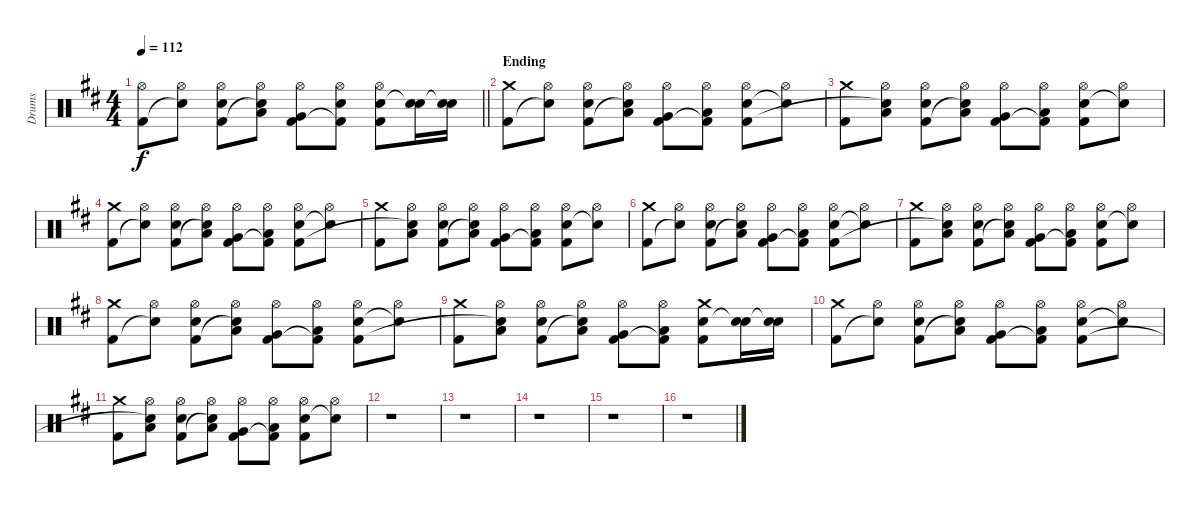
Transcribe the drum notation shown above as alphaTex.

\track ("Drums" "Drums") {instrument percussion}
\staff {score}
\articulation defaults
\ts (4 4)
\tempo 112
\clef neutral
\barLineRight lightlight
\ks bminor
("Hi-Hat (open)" "Kick (hit) 2").8{dy f} ("Hi-Hat (open)" "Snare (hit)"{t}).8 ("Hi-Hat (open)" "Electric Snare (hit)" "Kick (hit) 2").8 ("Hi-Hat (open)" "Low Tom (hit)" "Snare (hit)"{t}).8 ("Hi-Hat (open)" "Very Low Tom (hit)" "Kick (hit) 2").8 ("Hi-Hat (open)" "Electric Snare (hit)" "Kick (hit) 2"{t}).8 ("Hi-Hat (open)" "Electric Snare (hit)" "Kick (hit) 2").8 ("Electric Snare (hit)" "Snare (hit)"{t}).16 ("Electric Snare (hit)" "Snare (hit)"{t}).16 |
\section ("" "Ending")
("Crash medium (hit)" "Kick (hit) 2").8 ("Hi-Hat (open)" "Snare (hit)"{t}).8 ("Hi-Hat (open)" "Electric Snare (hit)" "Kick (hit) 2").8 ("Hi-Hat (open)" "Low Tom (hit)" "Snare (hit)"{t}).8 ("Hi-Hat (open)" "Very Low Tom (hit)" "Kick (hit) 2").8 ("Hi-Hat (open)" "Low Floor Tom (hit)" "Kick (hit) 2"{t}).8 ("Hi-Hat (open)" "Electric Snare (hit)" "Kick (hit) 2").8 ("Hi-Hat (open)" "Snare (hit)"{t}).8 |
("Crash medium (hit)" "Kick (hit) 2").8 ("Hi-Hat (open)" "Low Tom (hit)" "Snare (hit)"{t}).8 ("Hi-Hat (open)" "Electric Snare (hit)" "Kick (hit) 2").8 ("Hi-Hat (open)" "Low Tom (hit)" "Snare (hit)"{t}).8 ("Hi-Hat (open)" "Very Low Tom (hit)" "Kick (hit) 2").8 ("Hi-Hat (open)" "Low Floor Tom (hit)" "Kick (hit) 2"{t}).8 ("Hi-Hat (open)" "Electric Snare (hit)" "Kick (hit) 2").8 ("Hi-Hat (open)" "Snare (hit)"{t}).8 |
("Crash medium (hit)" "Kick (hit) 2").8 ("Hi-Hat (open)" "Snare (hit)"{t}).8 ("Hi-Hat (open)" "Electric Snare (hit)" "Kick (hit) 2").8 ("Hi-Hat (open)" "Low Tom (hit)" "Snare (hit)"{t}).8 ("Hi-Hat (open)" "Very Low Tom (hit)" "Kick (hit) 2").8 ("Hi-Hat (open)" "Low Floor Tom (hit)" "Kick (hit) 2"{t}).8 ("Hi-Hat (open)" "Electric Snare (hit)" "Kick (hit) 2").8 ("Hi-Hat (open)" "Snare (hit)"{t}).8 |
("Crash medium (hit)" "Kick (hit) 2").8 ("Hi-Hat (open)" "Low Tom (hit)" "Snare (hit)"{t}).8 ("Hi-Hat (open)" "Electric Snare (hit)" "Kick (hit) 2").8 ("Hi-Hat (open)" "Low Tom (hit)" "Snare (hit)"{t}).8 ("Hi-Hat (open)" "Very Low Tom (hit)" "Kick (hit) 2").8 ("Hi-Hat (open)" "Low Floor Tom (hit)" "Kick (hit) 2"{t}).8 ("Hi-Hat (open)" "Electric Snare (hit)" "Kick (hit) 2").8 ("Hi-Hat (open)" "Snare (hit)"{t}).8 |
("Crash medium (hit)" "Kick (hit) 2").8 ("Hi-Hat (open)" "Snare (hit)"{t}).8 ("Hi-Hat (open)" "Electric Snare (hit)" "Kick (hit) 2").8 ("Hi-Hat (open)" "Low Tom (hit)" "Snare (hit)"{t}).8 ("Hi-Hat (open)" "Very Low Tom (hit)" "Kick (hit) 2").8 ("Hi-Hat (open)" "Low Floor Tom (hit)" "Kick (hit) 2"{t}).8 ("Hi-Hat (open)" "Electric Snare (hit)" "Kick (hit) 2").8 ("Hi-Hat (open)" "Snare (hit)"{t}).8 |
("Crash medium (hit)" "Kick (hit) 2").8 ("Hi-Hat (open)" "Low Tom (hit)" "Snare (hit)"{t}).8 ("Hi-Hat (open)" "Electric Snare (hit)" "Kick (hit) 2").8 ("Hi-Hat (open)" "Low Tom (hit)" "Snare (hit)"{t}).8 ("Hi-Hat (open)" "Very Low Tom (hit)" "Kick (hit) 2").8 ("Hi-Hat (open)" "Low Floor Tom (hit)" "Kick (hit) 2"{t}).8 ("Hi-Hat (open)" "Electric Snare (hit)" "Kick (hit) 2").8 ("Hi-Hat (open)" "Snare (hit)"{t}).8 |
("Crash medium (hit)" "Kick (hit) 2").8{volume 0} ("Hi-Hat (open)" "Snare (hit)"{t}).8 ("Hi-Hat (open)" "Electric Snare (hit)" "Kick (hit) 2").8 ("Hi-Hat (open)" "Low Tom (hit)" "Snare (hit)"{t}).8 ("Hi-Hat (open)" "Very Low Tom (hit)" "Kick (hit) 2").8 ("Hi-Hat (open)" "Low Floor Tom (hit)" "Kick (hit) 2"{t}).8 ("Hi-Hat (open)" "Electric Snare (hit)" "Kick (hit) 2").8 ("Hi-Hat (open)" "Snare (hit)"{t}).8 |
("Crash medium (hit)" "Kick (hit) 2").8 ("Hi-Hat (open)" "Low Tom (hit)" "Snare (hit)"{t}).8 ("Hi-Hat (open)" "Electric Snare (hit)" "Kick (hit) 2").8 ("Hi-Hat (open)" "Low Tom (hit)" "Snare (hit)"{t}).8 ("Hi-Hat (open)" "Very Low Tom (hit)" "Kick (hit) 2").8 ("Hi-Hat (open)" "Low Floor Tom (hit)" "Kick (hit) 2"{t}).8 ("Crash medium (hit)" "Electric Snare (hit)" "Kick (hit) 2").8 ("Electric Snare (hit)" "Snare (hit)"{t}).16 ("Electric Snare (hit)" "Snare (hit)"{t}).16 |
("Crash medium (hit)" "Kick (hit) 2").8 ("Hi-Hat (open)" "Snare (hit)"{t}).8 ("Hi-Hat (open)" "Electric Snare (hit)" "Kick (hit) 2").8 ("Hi-Hat (open)" "Low Tom (hit)" "Snare (hit)"{t}).8 ("Hi-Hat (open)" "Very Low Tom (hit)" "Kick (hit) 2").8 ("Hi-Hat (open)" "Low Floor Tom (hit)" "Kick (hit) 2"{t}).8 ("Hi-Hat (open)" "Electric Snare (hit)" "Kick (hit) 2").8 ("Hi-Hat (open)" "Snare (hit)"{t}).8 |
("Crash medium (hit)" "Kick (hit) 2").8 ("Hi-Hat (open)" "Low Tom (hit)" "Snare (hit)"{t}).8 ("Hi-Hat (open)" "Electric Snare (hit)" "Kick (hit) 2").8 ("Hi-Hat (open)" "Low Tom (hit)" "Snare (hit)"{t}).8 ("Hi-Hat (open)" "Very Low Tom (hit)" "Kick (hit) 2").8 ("Hi-Hat (open)" "Low Floor Tom (hit)" "Kick (hit) 2"{t}).8 ("Hi-Hat (open)" "Electric Snare (hit)" "Kick (hit) 2").8 ("Hi-Hat (open)" "Snare (hit)"{t}).8 |
r.1 |
r.1 |
r.1 |
r.1 |
r.1
